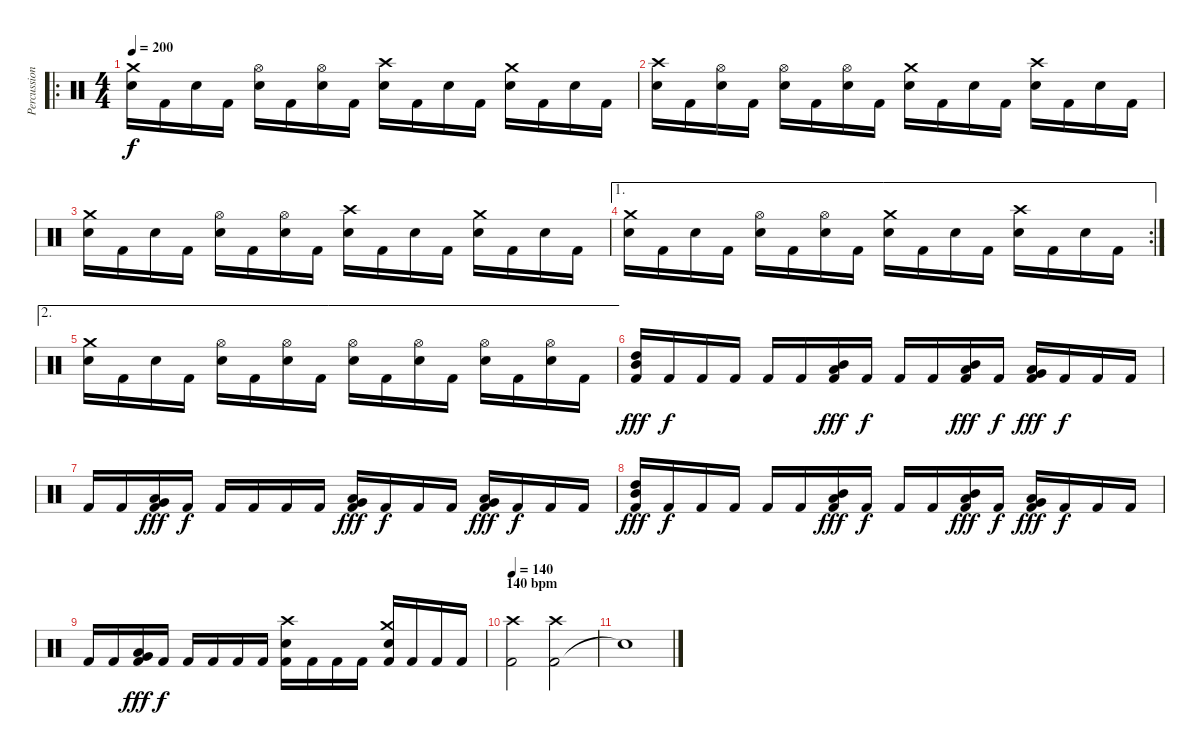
\track ("Percussion" "Percussion") {instrument percussion}
\staff {score}
\articulation defaults
\ro
\ts (4 4)
\tempo 200
\clef neutral
\ks c
("Snare (hit) 2" "Crash medium (hit)").16{dy f} "Kick (hit) 2".16 "Snare (hit) 2".16 "Kick (hit) 2".16 ("Snare (hit) 2" "Hi-Hat (open)").16 "Kick (hit) 2".16 ("Snare (hit) 2" "Hi-Hat (open)").16 "Kick (hit) 2".16 ("Snare (hit) 2" "Crash high (hit)").16 "Kick (hit) 2".16 "Snare (hit) 2".16 "Kick (hit) 2".16 ("Snare (hit) 2" "Crash medium (hit)").16 "Kick (hit) 2".16 "Snare (hit) 2".16 "Kick (hit) 2".16 |
("Snare (hit) 2" "Crash high (hit)").16 "Kick (hit) 2".16 ("Snare (hit) 2" "Hi-Hat (open)").16 "Kick (hit) 2".16 ("Snare (hit) 2" "Hi-Hat (open)").16 "Kick (hit) 2".16 ("Snare (hit) 2" "Hi-Hat (open)").16 "Kick (hit) 2".16 ("Snare (hit) 2" "Crash medium (hit)").16 "Kick (hit) 2".16 "Snare (hit) 2".16 "Kick (hit) 2".16 ("Snare (hit) 2" "Crash high (hit)").16 "Kick (hit) 2".16 "Snare (hit) 2".16 "Kick (hit) 2".16 |
("Snare (hit) 2" "Crash medium (hit)").16 "Kick (hit) 2".16 "Snare (hit) 2".16 "Kick (hit) 2".16 ("Snare (hit) 2" "Hi-Hat (open)").16 "Kick (hit) 2".16 ("Snare (hit) 2" "Hi-Hat (open)").16 "Kick (hit) 2".16 ("Snare (hit) 2" "Crash high (hit)").16 "Kick (hit) 2".16 "Snare (hit) 2".16 "Kick (hit) 2".16 ("Snare (hit) 2" "Crash medium (hit)").16 "Kick (hit) 2".16 "Snare (hit) 2".16 "Kick (hit) 2".16 |
\ae 1
\rc 2
("Snare (hit) 2" "Crash medium (hit)").16 "Kick (hit) 2".16 "Snare (hit) 2".16 "Kick (hit) 2".16 ("Snare (hit) 2" "Hi-Hat (open)").16 "Kick (hit) 2".16 ("Snare (hit) 2" "Hi-Hat (open)").16 "Kick (hit) 2".16 ("Snare (hit) 2" "Crash medium (hit)").16 "Kick (hit) 2".16 "Snare (hit) 2".16 "Kick (hit) 2".16 ("Snare (hit) 2" "Crash high (hit)").16 "Kick (hit) 2".16 "Snare (hit) 2".16 "Kick (hit) 2".16 |
\ae 2
("Snare (hit) 2" "Crash medium (hit)").16 "Kick (hit) 2".16 "Snare (hit) 2".16 "Kick (hit) 2".16 ("Snare (hit) 2" "Hi-Hat (open)").16 "Kick (hit) 2".16 ("Snare (hit) 2" "Hi-Hat (open)").16 "Kick (hit) 2".16 ("Snare (hit) 2" "Hi-Hat (open)").16 "Kick (hit) 2".16 ("Snare (hit) 2" "Hi-Hat (open)").16 "Kick (hit) 2".16 ("Snare (hit) 2" "Hi-Hat (open)").16 "Kick (hit) 2".16 ("Snare (hit) 2" "Hi-Hat (open)").16 "Kick (hit) 2".16 |
("Kick (hit) 2" "Mid Tom (hit)" "High Tom (hit)").16{dy fff} "Kick (hit) 2".16{dy f} "Kick (hit) 2".16 "Kick (hit) 2".16 "Kick (hit) 2".16 "Kick (hit) 2".16 ("Kick (hit) 2" "Low Tom (hit)" "Mid Tom (hit)").16{dy fff} "Kick (hit) 2".16{dy f} "Kick (hit) 2".16 "Kick (hit) 2".16 ("Kick (hit) 2" "Low Tom (hit)" "Mid Tom (hit)").16{dy fff} "Kick (hit) 2".16{dy f} ("Kick (hit) 2" "Very Low Tom (hit)" "Low Tom (hit)").16{dy fff} "Kick (hit) 2".16{dy f} "Kick (hit) 2".16 "Kick (hit) 2".16 |
"Kick (hit) 2".16 "Kick (hit) 2".16 ("Kick (hit) 2" "Low Floor Tom (hit)" "Very Low Tom (hit)").16{dy fff} "Kick (hit) 2".16{dy f} "Kick (hit) 2".16 "Kick (hit) 2".16 "Kick (hit) 2".16 "Kick (hit) 2".16 ("Kick (hit) 2" "Low Floor Tom (hit)" "Very Low Tom (hit)").16{dy fff} "Kick (hit) 2".16{dy f} "Kick (hit) 2".16 "Kick (hit) 2".16 ("Kick (hit) 2" "Low Floor Tom (hit)" "Very Low Tom (hit)").16{dy fff} "Kick (hit) 2".16{dy f} "Kick (hit) 2".16 "Kick (hit) 2".16 |
("Kick (hit) 2" "Mid Tom (hit)" "High Tom (hit)").16{dy fff} "Kick (hit) 2".16{dy f} "Kick (hit) 2".16 "Kick (hit) 2".16 "Kick (hit) 2".16 "Kick (hit) 2".16 ("Kick (hit) 2" "Low Tom (hit)" "Mid Tom (hit)").16{dy fff} "Kick (hit) 2".16{dy f} "Kick (hit) 2".16 "Kick (hit) 2".16 ("Kick (hit) 2" "Low Tom (hit)" "Mid Tom (hit)").16{dy fff} "Kick (hit) 2".16{dy f} ("Kick (hit) 2" "Very Low Tom (hit)" "Low Tom (hit)").16{dy fff} "Kick (hit) 2".16{dy f} "Kick (hit) 2".16 "Kick (hit) 2".16 |
"Kick (hit) 2".16 "Kick (hit) 2".16 ("Kick (hit) 2" "Low Floor Tom (hit)" "Very Low Tom (hit)").16{dy fff} "Kick (hit) 2".16{dy f} "Kick (hit) 2".16 "Kick (hit) 2".16 "Kick (hit) 2".16 "Kick (hit) 2".16 ("Kick (hit) 2" "Snare (hit) 2" "Crash high (hit)").16 "Kick (hit) 2".16 "Kick (hit) 2".16 "Kick (hit) 2".16 ("Kick (hit) 2" "Snare (hit) 2" "Crash medium (hit)").16 "Kick (hit) 2".16 "Kick (hit) 2".16 "Kick (hit) 2".16 |
\section ("" "140 bpm")
\tempo 140
("Kick (hit) 2" "Crash high (hit)").2 ("Kick (hit) 2" "Crash high (hit)").2 |
"Snare (hit)"{t}.1
